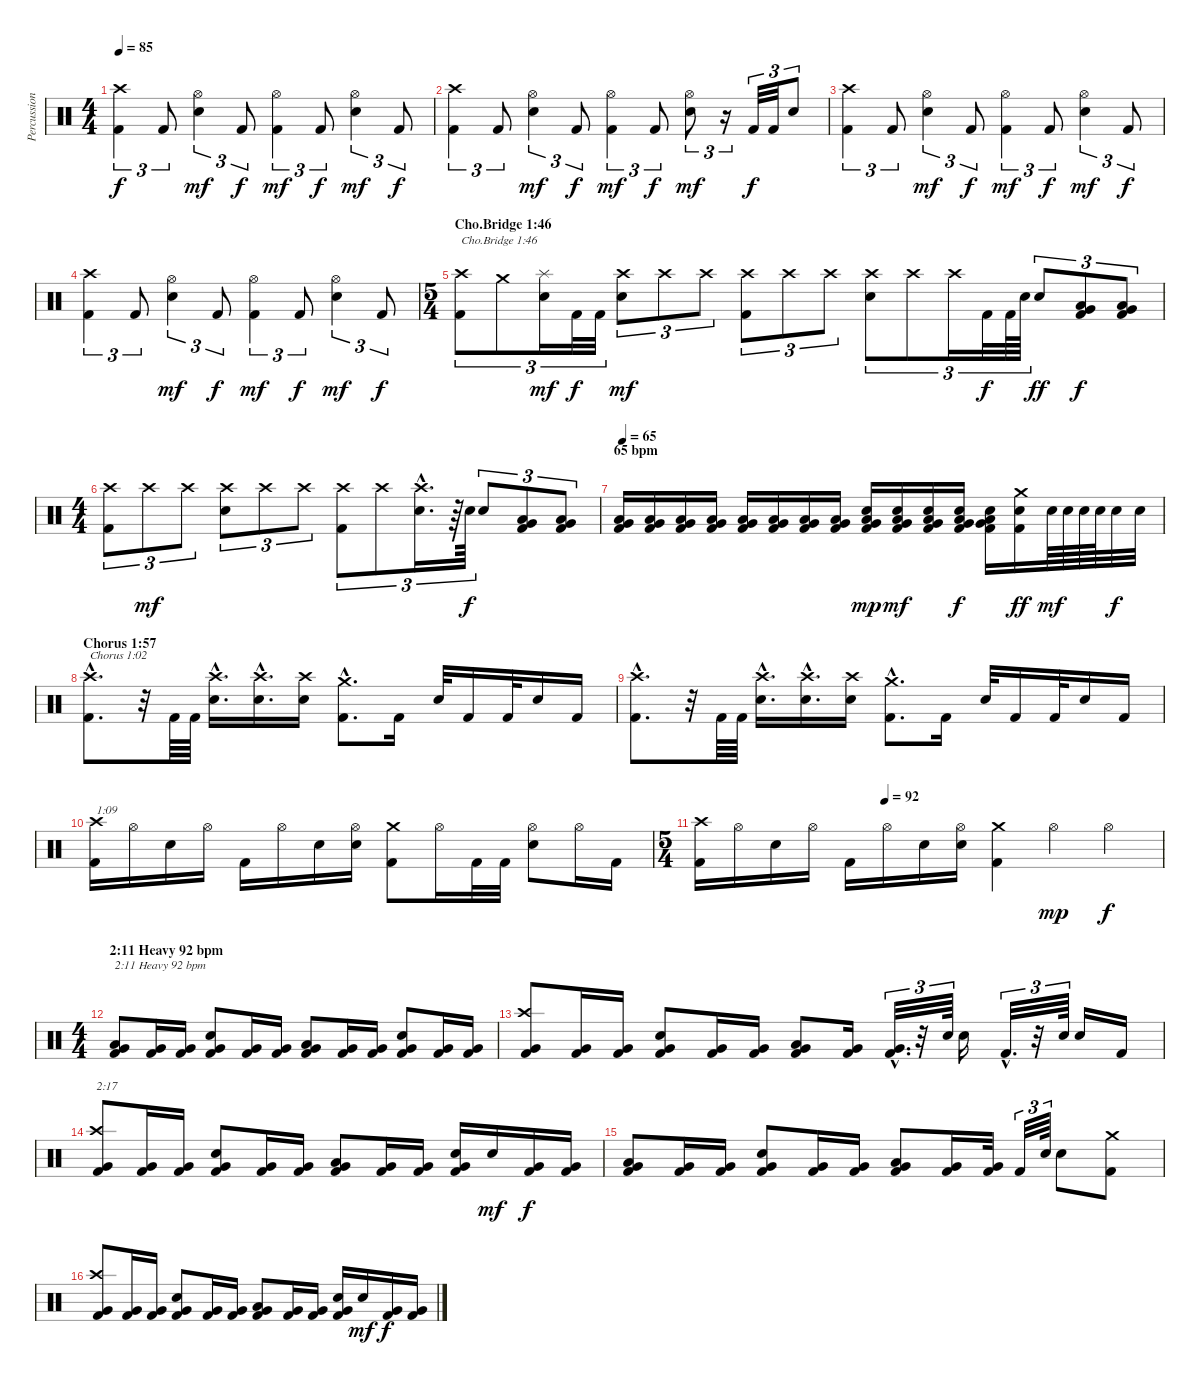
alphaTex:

\track ("Percussion" "Percussion") {instrument percussion}
\staff {score}
\articulation defaults
\ts (4 4)
\tempo 85
\clef neutral
\ks c
("Kick (hit) 2" "Crash high (hit)").4{tu (3 2) dy f} "Kick (hit) 2".8{tu (3 2)} ("Electric Snare (hit)" "Hi-Hat (open)").4{tu (3 2) dy mf} "Kick (hit) 2".8{tu (3 2) dy f} ("Kick (hit) 2" "Hi-Hat (open)").4{tu (3 2) dy mf} "Kick (hit) 2".8{tu (3 2) dy f} ("Electric Snare (hit)" "Hi-Hat (open)").4{tu (3 2) dy mf} "Kick (hit) 2".8{tu (3 2) dy f} |
("Kick (hit) 2" "Crash high (hit)").4{tu (3 2)} "Kick (hit) 2".8{tu (3 2)} ("Electric Snare (hit)" "Hi-Hat (open)").4{tu (3 2) dy mf} "Kick (hit) 2".8{tu (3 2) dy f} ("Kick (hit) 2" "Hi-Hat (open)").4{tu (3 2) dy mf} "Kick (hit) 2".8{tu (3 2) dy f} ("Electric Snare (hit)" "Hi-Hat (open)").8{tu (3 2) dy mf} r.16{tu (3 2)} "Kick (hit) 2".32{tu (3 2) dy f} "Kick (hit) 2".32{tu (3 2)} "Electric Snare (hit)".8{tu (3 2)} |
("Kick (hit) 2" "Crash high (hit)").4{tu (3 2)} "Kick (hit) 2".8{tu (3 2)} ("Electric Snare (hit)" "Hi-Hat (open)").4{tu (3 2) dy mf} "Kick (hit) 2".8{tu (3 2) dy f} ("Kick (hit) 2" "Hi-Hat (open)").4{tu (3 2) dy mf} "Kick (hit) 2".8{tu (3 2) dy f} ("Electric Snare (hit)" "Hi-Hat (open)").4{tu (3 2) dy mf} "Kick (hit) 2".8{tu (3 2) dy f} |
("Kick (hit) 2" "Crash high (hit)").4{tu (3 2)} "Kick (hit) 2".8{tu (3 2)} ("Electric Snare (hit)" "Hi-Hat (open)").4{tu (3 2) dy mf} "Kick (hit) 2".8{tu (3 2) dy f} ("Kick (hit) 2" "Hi-Hat (open)").4{tu (3 2) dy mf} "Kick (hit) 2".8{tu (3 2) dy f} ("Electric Snare (hit)" "Hi-Hat (open)").4{tu (3 2) dy mf} "Kick (hit) 2".8{tu (3 2) dy f} |
\ts (5 4)
\section ("" "Cho.Bridge 1:46")
("Kick (hit) 2" "Crash high (hit)").8{tu (3 2) txt "Cho.Bridge 1:46"} "Crash medium (hit)".8{tu (3 2)} ("Electric Snare (hit)" "Splash (hit)").16{tu (3 2) dy mf} "Kick (hit) 2".32{tu (3 2) dy f} "Kick (hit) 2".32{tu (3 2)} ("Electric Snare (hit)" "Crash high (hit)").8{tu (3 2) dy mf} "Crash high (hit)".8{tu (3 2)} "Crash high (hit)".8{tu (3 2)} ("Kick (hit) 2" "Crash high (hit)").8{tu (3 2)} "Crash high (hit)".8{tu (3 2)} "Crash high (hit)".8{tu (3 2)} ("Electric Snare (hit)" "Crash high (hit)").8{tu (3 2)} "Crash high (hit)".8{tu (3 2)} "Crash high (hit)".16{tu (3 2)} "Kick (hit) 2".32{tu (3 2) dy f} "Kick (hit) 2".64{tu (3 2)} "Electric Snare (hit)".64{tu (3 2)} "Electric Snare (hit)".8{tu (3 2) dy ff} ("Kick (hit) 2" "Low Tom (hit)" "Very Low Tom (hit)").8{tu (3 2) dy f} ("Kick (hit) 2" "Low Tom (hit)" "Very Low Tom (hit)").8{tu (3 2)} |
\ts (4 4)
("Kick (hit) 2" "Crash high (hit)").8{tu (3 2)} "Crash high (hit)".8{tu (3 2) dy mf} "Crash high (hit)".8{tu (3 2)} ("Electric Snare (hit)" "Crash high (hit)").8{tu (3 2)} "Crash high (hit)".8{tu (3 2)} "Crash high (hit)".8{tu (3 2)} ("Kick (hit) 2" "Crash high (hit)").8{tu (3 2)} "Crash high (hit)".8{tu (3 2)} ("Electric Snare (hit)"{hac} "Crash high (hit)"{hac}).16{d tu (3 2)} r.64{tu (3 2)} "Electric Snare (hit)".64{tu (3 2) dy f} "Electric Snare (hit)".8{tu (3 2)} ("Kick (hit) 2" "Low Tom (hit)" "Very Low Tom (hit)").8{tu (3 2)} ("Kick (hit) 2" "Low Tom (hit)" "Very Low Tom (hit)").8{tu (3 2)} |
\section ("" "65 bpm")
\tempo 65
("Kick (hit) 2" "Low Tom (hit)" "Very Low Tom (hit)").16{volume 11} ("Kick (hit) 2" "Low Tom (hit)" "Very Low Tom (hit)").16{volume 14} ("Kick (hit) 2" "Low Tom (hit)" "Very Low Tom (hit)").16 ("Kick (hit) 2" "Low Tom (hit)" "Very Low Tom (hit)").16 ("Kick (hit) 2" "Low Tom (hit)" "Very Low Tom (hit)").16 ("Kick (hit) 2" "Low Tom (hit)" "Very Low Tom (hit)").16 ("Kick (hit) 2" "Low Tom (hit)" "Very Low Tom (hit)").16 ("Kick (hit) 2" "Low Tom (hit)" "Very Low Tom (hit)").16 ("Kick (hit) 2" "Low Tom (hit)" "Very Low Tom (hit)" "Electric Snare (hit)").16{dy mp} ("Kick (hit) 2" "Low Tom (hit)" "Very Low Tom (hit)" "Electric Snare (hit)").16{dy mf} ("Kick (hit) 2" "Low Tom (hit)" "Very Low Tom (hit)" "Electric Snare (hit)").16 ("Kick (hit) 2" "Low Tom (hit)" "Very Low Tom (hit)" "Electric Snare (hit)").16{dy f} ("Kick (hit) 2" "Low Tom (hit)" "Very Low Tom (hit)" "Electric Snare (hit)").16 ("Kick (hit) 2" "Electric Snare (hit)" "Crash medium (hit)").16{dy ff} "Electric Snare (hit)".64{dy mf} "Electric Snare (hit)".64 "Electric Snare (hit)".64 "Electric Snare (hit)".64 "Electric Snare (hit)".32{dy f} "Electric Snare (hit)".32 |
\section ("" "Chorus 1:57")
("Kick (hit) 2"{hac} "Crash high (hit)"{hac}).8{d txt "Chorus 1:02"} r.32 "Kick (hit) 2".64 "Kick (hit) 2".64 ("Electric Snare (hit)"{hac} "Crash high (hit)"{hac}).16{d} ("Electric Snare (hit)"{hac} "Crash high (hit)"{hac}).16{d} ("Electric Snare (hit)" "Crash high (hit)").16 ("Kick (hit) 2"{hac} "Crash medium (hit)"{hac}).8{d} "Kick (hit) 2".16 "Electric Snare (hit)".32 "Kick (hit) 2".16 "Kick (hit) 2".32 "Electric Snare (hit)".16 "Kick (hit) 2".16 |
("Kick (hit) 2"{hac} "Crash high (hit)"{hac}).8{d} r.32 "Kick (hit) 2".64 "Kick (hit) 2".64 ("Electric Snare (hit)"{hac} "Crash high (hit)"{hac}).16{d} ("Electric Snare (hit)"{hac} "Crash high (hit)"{hac}).16{d} ("Electric Snare (hit)" "Crash high (hit)").16 ("Kick (hit) 2"{hac} "Crash medium (hit)"{hac}).8{d} "Kick (hit) 2".16 "Electric Snare (hit)".32 "Kick (hit) 2".16 "Kick (hit) 2".32 "Electric Snare (hit)".16 "Kick (hit) 2".16 |
("Kick (hit) 2" "Crash high (hit)").16{txt "1:09"} "Hi-Hat (open)".16 "Electric Snare (hit)".16 "Hi-Hat (open)".16 "Kick (hit) 2".16 "Hi-Hat (open)".16 "Electric Snare (hit)".16 ("Electric Snare (hit)" "Hi-Hat (open)").16 ("Kick (hit) 2" "Crash medium (hit)").8 "Hi-Hat (open)".16 "Kick (hit) 2".32 "Kick (hit) 2".32 ("Electric Snare (hit)" "Hi-Hat (open)").8 "Hi-Hat (open)".16 "Kick (hit) 2".16 |
\ts (5 4)
\tempo (92 0.4)
("Kick (hit) 2" "Crash high (hit)").16 "Hi-Hat (open)".16 "Electric Snare (hit)".16 "Hi-Hat (open)".16 "Kick (hit) 2".16 "Hi-Hat (open)".16 "Electric Snare (hit)".16 ("Electric Snare (hit)" "Hi-Hat (open)").16 ("Kick (hit) 2" "Crash medium (hit)").4 "Hi-Hat (open)".4{dy mp} "Hi-Hat (open)".4{dy f} |
\ts (4 4)
\section ("" "2:11 Heavy 92 bpm")
("Kick (hit) 2" "Very Low Tom (hit)" "Low Tom (hit)").8{txt "2:11 Heavy 92 bpm"} ("Kick (hit) 2" "Very Low Tom (hit)").16 ("Kick (hit) 2" "Very Low Tom (hit)").16 ("Kick (hit) 2" "Very Low Tom (hit)" "Electric Snare (hit)").8 ("Kick (hit) 2" "Very Low Tom (hit)").16 ("Kick (hit) 2" "Very Low Tom (hit)").16 ("Kick (hit) 2" "Very Low Tom (hit)" "Low Tom (hit)").8 ("Kick (hit) 2" "Very Low Tom (hit)").16 ("Kick (hit) 2" "Very Low Tom (hit)").16 ("Kick (hit) 2" "Very Low Tom (hit)" "Electric Snare (hit)").8 ("Kick (hit) 2" "Very Low Tom (hit)").16 ("Kick (hit) 2" "Very Low Tom (hit)").16 |
("Kick (hit) 2" "Very Low Tom (hit)" "Crash high (hit)").8 ("Kick (hit) 2" "Very Low Tom (hit)").16 ("Kick (hit) 2" "Very Low Tom (hit)").16 ("Kick (hit) 2" "Very Low Tom (hit)" "Electric Snare (hit)").8 ("Kick (hit) 2" "Very Low Tom (hit)").16 ("Kick (hit) 2" "Very Low Tom (hit)").16 ("Kick (hit) 2" "Very Low Tom (hit)" "Low Tom (hit)").8 ("Kick (hit) 2" "Very Low Tom (hit)").16 ("Kick (hit) 2"{hac} "Very Low Tom (hit)"{hac}).32{d tu (3 2)} r.32{tu (3 2)} "Electric Snare (hit)".64{tu (3 2)} "Electric Snare (hit)".16 "Kick (hit) 2"{hac}.32{d tu (3 2)} r.32{tu (3 2)} "Electric Snare (hit)".64{tu (3 2)} "Electric Snare (hit)".16 "Kick (hit) 2".16 |
("Kick (hit) 2" "Very Low Tom (hit)" "Crash high (hit)").8{txt "2:17"} ("Kick (hit) 2" "Very Low Tom (hit)").16 ("Kick (hit) 2" "Very Low Tom (hit)").16 ("Kick (hit) 2" "Very Low Tom (hit)" "Electric Snare (hit)").8 ("Kick (hit) 2" "Very Low Tom (hit)").16 ("Kick (hit) 2" "Very Low Tom (hit)").16 ("Kick (hit) 2" "Very Low Tom (hit)" "Low Tom (hit)").8 ("Kick (hit) 2" "Very Low Tom (hit)").16 ("Kick (hit) 2" "Very Low Tom (hit)").16 ("Kick (hit) 2" "Very Low Tom (hit)" "Electric Snare (hit)").16 "Electric Snare (hit)".16{dy mf} ("Kick (hit) 2" "Very Low Tom (hit)").16{dy f} ("Kick (hit) 2" "Very Low Tom (hit)").16 |
("Kick (hit) 2" "Very Low Tom (hit)" "Low Tom (hit)").8 ("Kick (hit) 2" "Very Low Tom (hit)").16 ("Kick (hit) 2" "Very Low Tom (hit)").16 ("Kick (hit) 2" "Very Low Tom (hit)" "Electric Snare (hit)").8 ("Kick (hit) 2" "Very Low Tom (hit)").16 ("Kick (hit) 2" "Very Low Tom (hit)").16 ("Kick (hit) 2" "Very Low Tom (hit)" "Low Tom (hit)").8 ("Kick (hit) 2" "Very Low Tom (hit)").16 ("Kick (hit) 2" "Very Low Tom (hit)").32 "Kick (hit) 2".32{tu (3 2)} "Electric Snare (hit)".64{tu (3 2)} "Electric Snare (hit)".8 ("Kick (hit) 2" "Crash medium (hit)").8 |
("Kick (hit) 2" "Very Low Tom (hit)" "Crash high (hit)").8 ("Kick (hit) 2" "Very Low Tom (hit)").16 ("Kick (hit) 2" "Very Low Tom (hit)").16 ("Kick (hit) 2" "Very Low Tom (hit)" "Electric Snare (hit)").8 ("Kick (hit) 2" "Very Low Tom (hit)").16 ("Kick (hit) 2" "Very Low Tom (hit)").16 ("Kick (hit) 2" "Very Low Tom (hit)" "Low Tom (hit)").8 ("Kick (hit) 2" "Very Low Tom (hit)").16 ("Kick (hit) 2" "Very Low Tom (hit)").16 ("Kick (hit) 2" "Very Low Tom (hit)" "Electric Snare (hit)").16 "Electric Snare (hit)".16{dy mf} ("Kick (hit) 2" "Very Low Tom (hit)").16{dy f} ("Kick (hit) 2" "Very Low Tom (hit)").16
